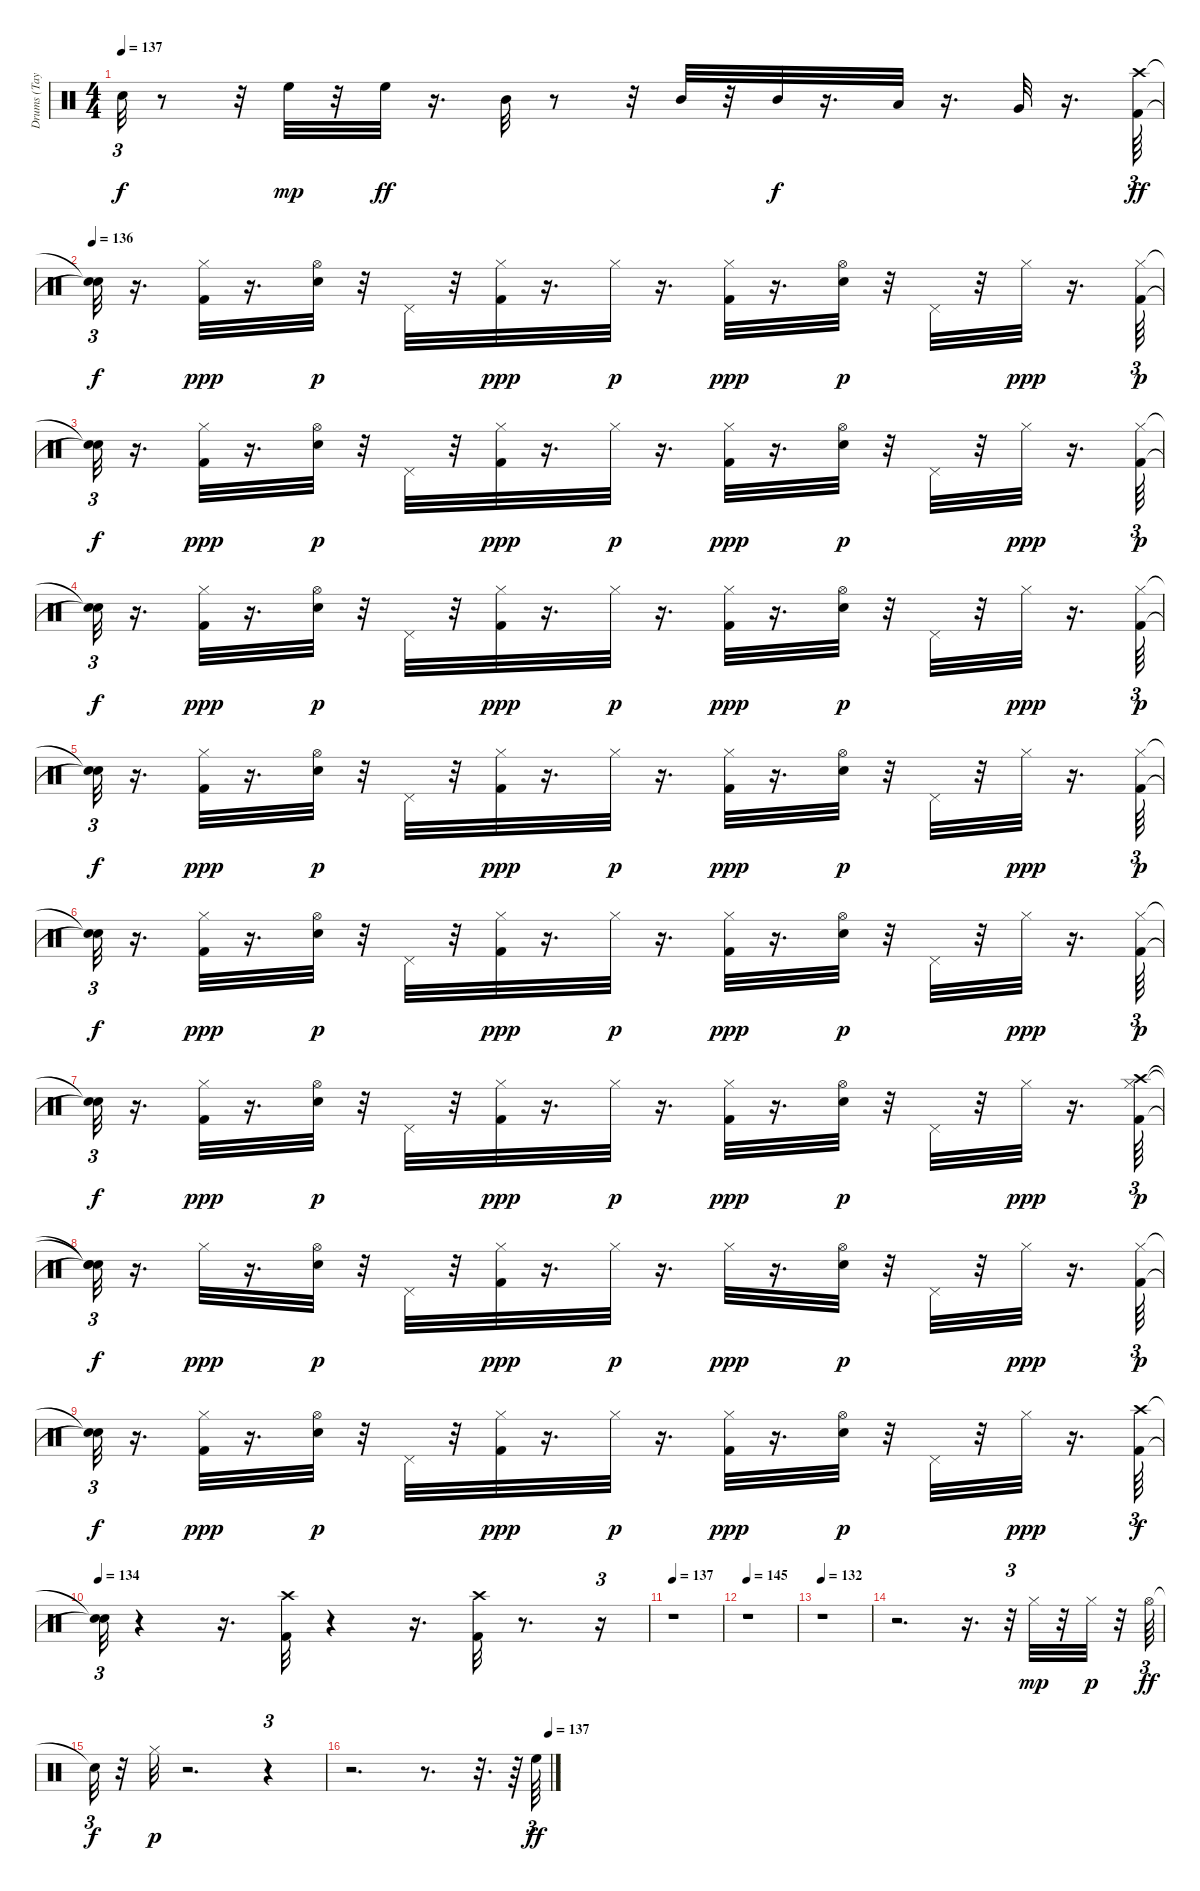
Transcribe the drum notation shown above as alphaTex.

\track ("Drums (Taylor)" "Drums (Tay") {instrument percussion}
\staff {score}
\articulation defaults
\ts (4 4)
\tempo 137
\clef neutral
\ks c "Snare (hit)"{t}.32{tu (3 2) dy f}
r.8 r.32 "High Floor Tom (hit)".32{dy mp} r.32 "High Floor Tom (hit)".32{dy ff} r.16{d} "Mid Tom (hit)".32 r.8 r.32 "Mid Tom (hit)".32 r.32 "Mid Tom (hit)".32{dy f} r.16{d} "Low Tom (hit)".32 r.16{d} "Very Low Tom (hit)".32 r.16{d} ("Kick (hit) 2" "Crash high (hit)").64{tu (3 2) dy ff} |
\tempo 136
("Snare (hit)"{t} "Snare (hit)"{t}).32{tu (3 2) dy f} r.16{d} ("Kick (hit) 2" "Hi-Hat (closed)").32{dy ppp} r.16{d} ("Snare (hit) 2" "Hi-Hat (open)").32{dy p} r.32 "Pedal Hi-Hat (hit)".32 r.32 ("Kick (hit) 2" "Hi-Hat (closed)").32{dy ppp} r.16{d} "Hi-Hat (closed)".32{dy p} r.16{d} ("Kick (hit) 2" "Hi-Hat (closed)").32{dy ppp} r.16{d} ("Snare (hit) 2" "Hi-Hat (open)").32{dy p} r.32 "Pedal Hi-Hat (hit)".32 r.32 "Hi-Hat (closed)".32{dy ppp} r.16{d} ("Kick (hit) 2" "Hi-Hat (closed)").64{tu (3 2) dy p} |
("Snare (hit)"{t} "Snare (hit)"{t}).32{tu (3 2) dy f} r.16{d} ("Kick (hit) 2" "Hi-Hat (closed)").32{dy ppp} r.16{d} ("Snare (hit) 2" "Hi-Hat (open)").32{dy p} r.32 "Pedal Hi-Hat (hit)".32 r.32 ("Kick (hit) 2" "Hi-Hat (closed)").32{dy ppp} r.16{d} "Hi-Hat (closed)".32{dy p} r.16{d} ("Kick (hit) 2" "Hi-Hat (closed)").32{dy ppp} r.16{d} ("Snare (hit) 2" "Hi-Hat (open)").32{dy p} r.32 "Pedal Hi-Hat (hit)".32 r.32 "Hi-Hat (closed)".32{dy ppp} r.16{d} ("Kick (hit) 2" "Hi-Hat (closed)").64{tu (3 2) dy p} |
("Snare (hit)"{t} "Snare (hit)"{t}).32{tu (3 2) dy f} r.16{d} ("Kick (hit) 2" "Hi-Hat (closed)").32{dy ppp} r.16{d} ("Snare (hit) 2" "Hi-Hat (open)").32{dy p} r.32 "Pedal Hi-Hat (hit)".32 r.32 ("Kick (hit) 2" "Hi-Hat (closed)").32{dy ppp} r.16{d} "Hi-Hat (closed)".32{dy p} r.16{d} ("Kick (hit) 2" "Hi-Hat (closed)").32{dy ppp} r.16{d} ("Snare (hit) 2" "Hi-Hat (open)").32{dy p} r.32 "Pedal Hi-Hat (hit)".32 r.32 "Hi-Hat (closed)".32{dy ppp} r.16{d} ("Kick (hit) 2" "Hi-Hat (closed)").64{tu (3 2) dy p} |
("Snare (hit)"{t} "Snare (hit)"{t}).32{tu (3 2) dy f} r.16{d} ("Kick (hit) 2" "Hi-Hat (closed)").32{dy ppp} r.16{d} ("Snare (hit) 2" "Hi-Hat (open)").32{dy p} r.32 "Pedal Hi-Hat (hit)".32 r.32 ("Kick (hit) 2" "Hi-Hat (closed)").32{dy ppp} r.16{d} "Hi-Hat (closed)".32{dy p} r.16{d} ("Kick (hit) 2" "Hi-Hat (closed)").32{dy ppp} r.16{d} ("Snare (hit) 2" "Hi-Hat (open)").32{dy p} r.32 "Pedal Hi-Hat (hit)".32 r.32 "Hi-Hat (closed)".32{dy ppp} r.16{d} ("Kick (hit) 2" "Hi-Hat (closed)").64{tu (3 2) dy p} |
("Snare (hit)"{t} "Snare (hit)"{t}).32{tu (3 2) dy f} r.16{d} ("Kick (hit) 2" "Hi-Hat (closed)").32{dy ppp} r.16{d} ("Snare (hit) 2" "Hi-Hat (open)").32{dy p} r.32 "Pedal Hi-Hat (hit)".32 r.32 ("Kick (hit) 2" "Hi-Hat (closed)").32{dy ppp} r.16{d} "Hi-Hat (closed)".32{dy p} r.16{d} ("Kick (hit) 2" "Hi-Hat (closed)").32{dy ppp} r.16{d} ("Snare (hit) 2" "Hi-Hat (open)").32{dy p} r.32 "Pedal Hi-Hat (hit)".32 r.32 "Hi-Hat (closed)".32{dy ppp} r.16{d} ("Kick (hit) 2" "Hi-Hat (closed)").64{tu (3 2) dy p} |
("Snare (hit)"{t} "Snare (hit)"{t}).32{tu (3 2) dy f} r.16{d} ("Kick (hit) 2" "Hi-Hat (closed)").32{dy ppp} r.16{d} ("Snare (hit) 2" "Hi-Hat (open)").32{dy p} r.32 "Pedal Hi-Hat (hit)".32 r.32 ("Kick (hit) 2" "Hi-Hat (closed)").32{dy ppp} r.16{d} "Hi-Hat (closed)".32{dy p} r.16{d} ("Kick (hit) 2" "Hi-Hat (closed)").32{dy ppp} r.16{d} ("Snare (hit) 2" "Hi-Hat (open)").32{dy p} r.32 "Pedal Hi-Hat (hit)".32 r.32 "Hi-Hat (closed)".32{dy ppp} r.16{d} ("Crash high (hit)" "Kick (hit) 2" "Hi-Hat (closed)").64{tu (3 2) dy p} |
("Snare (hit)"{t} "Snare (hit)"{t} "Snare (hit)"{t}).32{tu (3 2) dy f} r.16{d} "Hi-Hat (closed)".32{dy ppp} r.16{d} ("Snare (hit) 2" "Hi-Hat (open)").32{dy p} r.32 "Pedal Hi-Hat (hit)".32 r.32 ("Kick (hit) 2" "Hi-Hat (closed)").32{dy ppp} r.16{d} "Hi-Hat (closed)".32{dy p} r.16{d} "Hi-Hat (closed)".32{dy ppp} r.16{d} ("Snare (hit) 2" "Hi-Hat (open)").32{dy p} r.32 "Pedal Hi-Hat (hit)".32 r.32 "Hi-Hat (closed)".32{dy ppp} r.16{d} ("Kick (hit) 2" "Hi-Hat (closed)").64{tu (3 2) dy p} |
("Snare (hit)"{t} "Snare (hit)"{t}).32{tu (3 2) dy f} r.16{d} ("Kick (hit) 2" "Hi-Hat (closed)").32{dy ppp} r.16{d} ("Snare (hit) 2" "Hi-Hat (open)").32{dy p} r.32 "Pedal Hi-Hat (hit)".32 r.32 ("Kick (hit) 2" "Hi-Hat (closed)").32{dy ppp} r.16{d} "Hi-Hat (closed)".32{dy p} r.16{d} ("Kick (hit) 2" "Hi-Hat (closed)").32{dy ppp} r.16{d} ("Snare (hit) 2" "Hi-Hat (open)").32{dy p} r.32 "Pedal Hi-Hat (hit)".32 r.32 "Hi-Hat (closed)".32{dy ppp} r.16{d} ("Crash high (hit)" "Kick (hit) 2").64{tu (3 2) dy f} |
\tempo 134
("Snare (hit)"{t} "Snare (hit)"{t}).32{tu (3 2)} r.4 r.16{d} ("Crash high (hit)" "Kick (hit) 2").32 r.4 r.16{d} ("Crash high (hit)" "Kick (hit) 2").32 r.8{d} r.16{tu (3 2)} |
\tempo 137
r.1 |
\tempo 145
r.1 |
\tempo 132
r.1 |
r.2{d} r.16{d} r.32{tu (3 2)} "Hi-Hat (closed)".32{dy mp} r.32 "Hi-Hat (closed)".32{dy p} r.32 "Hi-Hat (open)".64{tu (3 2) dy ff} |
"Snare (hit)"{t}.32{tu (3 2) dy f} r.32 "Hi-Hat (closed)".32{dy p} r.2{d} r.4{tu (3 2)} |
\tempo (137 0.99375)
r.2{d} r.8{d} r.32{d} r.64 "High Floor Tom (hit)".64{tu (3 2) dy ff}
